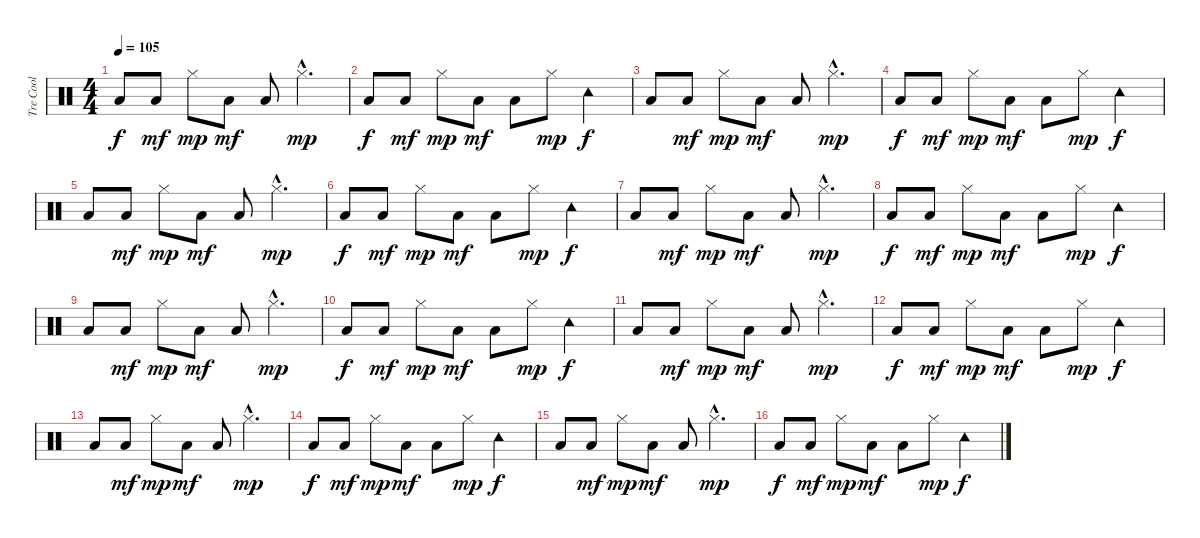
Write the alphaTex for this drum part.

\track ("Tre Cool" "Tre Cool") {instrument percussion}
\staff {score}
\articulation defaults
\ts (4 4)
\tempo 105
\clef neutral
\ks c "Low Floor Tom (hit)".8{dy f} "Low Floor Tom (hit)".8{dy mf} "Hi-Hat (closed)".8{dy mp} "Low Floor Tom (hit)".8{dy mf} "Low Floor Tom (hit)".8 "Hi-Hat (closed)"{hac}.4{d dy mp}
|
"Low Floor Tom (hit)".8{dy f} "Low Floor Tom (hit)".8{dy mf} "Hi-Hat (closed)".8{dy mp} "Low Floor Tom (hit)".8{dy mf} "Low Floor Tom (hit)".8 "Hi-Hat (closed)".8{dy mp} "Tambourine (hit)".4{dy f} |
"Low Floor Tom (hit)".8 "Low Floor Tom (hit)".8{dy mf} "Hi-Hat (closed)".8{dy mp} "Low Floor Tom (hit)".8{dy mf} "Low Floor Tom (hit)".8 "Hi-Hat (closed)"{hac}.4{d dy mp} |
"Low Floor Tom (hit)".8{dy f} "Low Floor Tom (hit)".8{dy mf} "Hi-Hat (closed)".8{dy mp} "Low Floor Tom (hit)".8{dy mf} "Low Floor Tom (hit)".8 "Hi-Hat (closed)".8{dy mp} "Tambourine (hit)".4{dy f} |
"Low Floor Tom (hit)".8 "Low Floor Tom (hit)".8{dy mf} "Hi-Hat (closed)".8{dy mp} "Low Floor Tom (hit)".8{dy mf} "Low Floor Tom (hit)".8 "Hi-Hat (closed)"{hac}.4{d dy mp} |
"Low Floor Tom (hit)".8{dy f} "Low Floor Tom (hit)".8{dy mf} "Hi-Hat (closed)".8{dy mp} "Low Floor Tom (hit)".8{dy mf} "Low Floor Tom (hit)".8 "Hi-Hat (closed)".8{dy mp} "Tambourine (hit)".4{dy f} |
"Low Floor Tom (hit)".8 "Low Floor Tom (hit)".8{dy mf} "Hi-Hat (closed)".8{dy mp} "Low Floor Tom (hit)".8{dy mf} "Low Floor Tom (hit)".8 "Hi-Hat (closed)"{hac}.4{d dy mp} |
"Low Floor Tom (hit)".8{dy f} "Low Floor Tom (hit)".8{dy mf} "Hi-Hat (closed)".8{dy mp} "Low Floor Tom (hit)".8{dy mf} "Low Floor Tom (hit)".8 "Hi-Hat (closed)".8{dy mp} "Tambourine (hit)".4{dy f} |
"Low Floor Tom (hit)".8 "Low Floor Tom (hit)".8{dy mf} "Hi-Hat (closed)".8{dy mp} "Low Floor Tom (hit)".8{dy mf} "Low Floor Tom (hit)".8 "Hi-Hat (closed)"{hac}.4{d dy mp} |
"Low Floor Tom (hit)".8{dy f} "Low Floor Tom (hit)".8{dy mf} "Hi-Hat (closed)".8{dy mp} "Low Floor Tom (hit)".8{dy mf} "Low Floor Tom (hit)".8 "Hi-Hat (closed)".8{dy mp} "Tambourine (hit)".4{dy f} |
"Low Floor Tom (hit)".8 "Low Floor Tom (hit)".8{dy mf} "Hi-Hat (closed)".8{dy mp} "Low Floor Tom (hit)".8{dy mf} "Low Floor Tom (hit)".8 "Hi-Hat (closed)"{hac}.4{d dy mp} |
"Low Floor Tom (hit)".8{dy f} "Low Floor Tom (hit)".8{dy mf} "Hi-Hat (closed)".8{dy mp} "Low Floor Tom (hit)".8{dy mf} "Low Floor Tom (hit)".8 "Hi-Hat (closed)".8{dy mp} "Tambourine (hit)".4{dy f} |
"Low Floor Tom (hit)".8 "Low Floor Tom (hit)".8{dy mf} "Hi-Hat (closed)".8{dy mp} "Low Floor Tom (hit)".8{dy mf} "Low Floor Tom (hit)".8 "Hi-Hat (closed)"{hac}.4{d dy mp} |
"Low Floor Tom (hit)".8{dy f} "Low Floor Tom (hit)".8{dy mf} "Hi-Hat (closed)".8{dy mp} "Low Floor Tom (hit)".8{dy mf} "Low Floor Tom (hit)".8 "Hi-Hat (closed)".8{dy mp} "Tambourine (hit)".4{dy f} |
"Low Floor Tom (hit)".8 "Low Floor Tom (hit)".8{dy mf} "Hi-Hat (closed)".8{dy mp} "Low Floor Tom (hit)".8{dy mf} "Low Floor Tom (hit)".8 "Hi-Hat (closed)"{hac}.4{d dy mp} |
"Low Floor Tom (hit)".8{dy f} "Low Floor Tom (hit)".8{dy mf} "Hi-Hat (closed)".8{dy mp} "Low Floor Tom (hit)".8{dy mf} "Low Floor Tom (hit)".8 "Hi-Hat (closed)".8{dy mp} "Tambourine (hit)".4{dy f}
